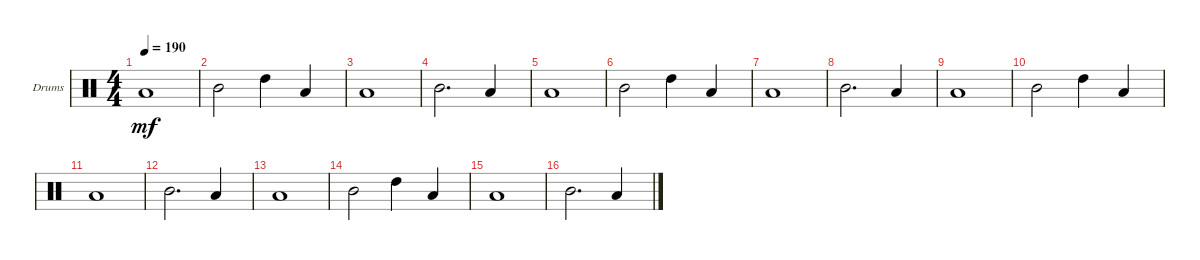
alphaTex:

\defaultSystemsLayout 4
\bracketExtendMode groupsimilarinstruments
\firstSystemTrackNameOrientation horizontal
\otherSystemsTrackNameOrientation horizontal
\track ("Drumkit" "Drums") {instrument percussion}
\staff {score}
\articulation defaults
\ts (4 4)
\tempo 190
\clef neutral
\ks c "Low Tom (hit)".1{dy mf}
|
"Mid Tom (hit)".2 "High Tom (hit)".4 "Low Tom (hit)".4 |
"Low Tom (hit)".1 |
"Mid Tom (hit)".2{d} "Low Tom (hit)".4 |
"Low Tom (hit)".1 |
"Mid Tom (hit)".2 "High Tom (hit)".4 "Low Tom (hit)".4 |
"Low Tom (hit)".1 |
"Mid Tom (hit)".2{d} "Low Tom (hit)".4 |
"Low Tom (hit)".1 |
"Mid Tom (hit)".2 "High Tom (hit)".4 "Low Tom (hit)".4 |
"Low Tom (hit)".1 |
"Mid Tom (hit)".2{d} "Low Tom (hit)".4 |
"Low Tom (hit)".1 |
"Mid Tom (hit)".2 "High Tom (hit)".4 "Low Tom (hit)".4 |
"Low Tom (hit)".1 |
"Mid Tom (hit)".2{d} "Low Tom (hit)".4
